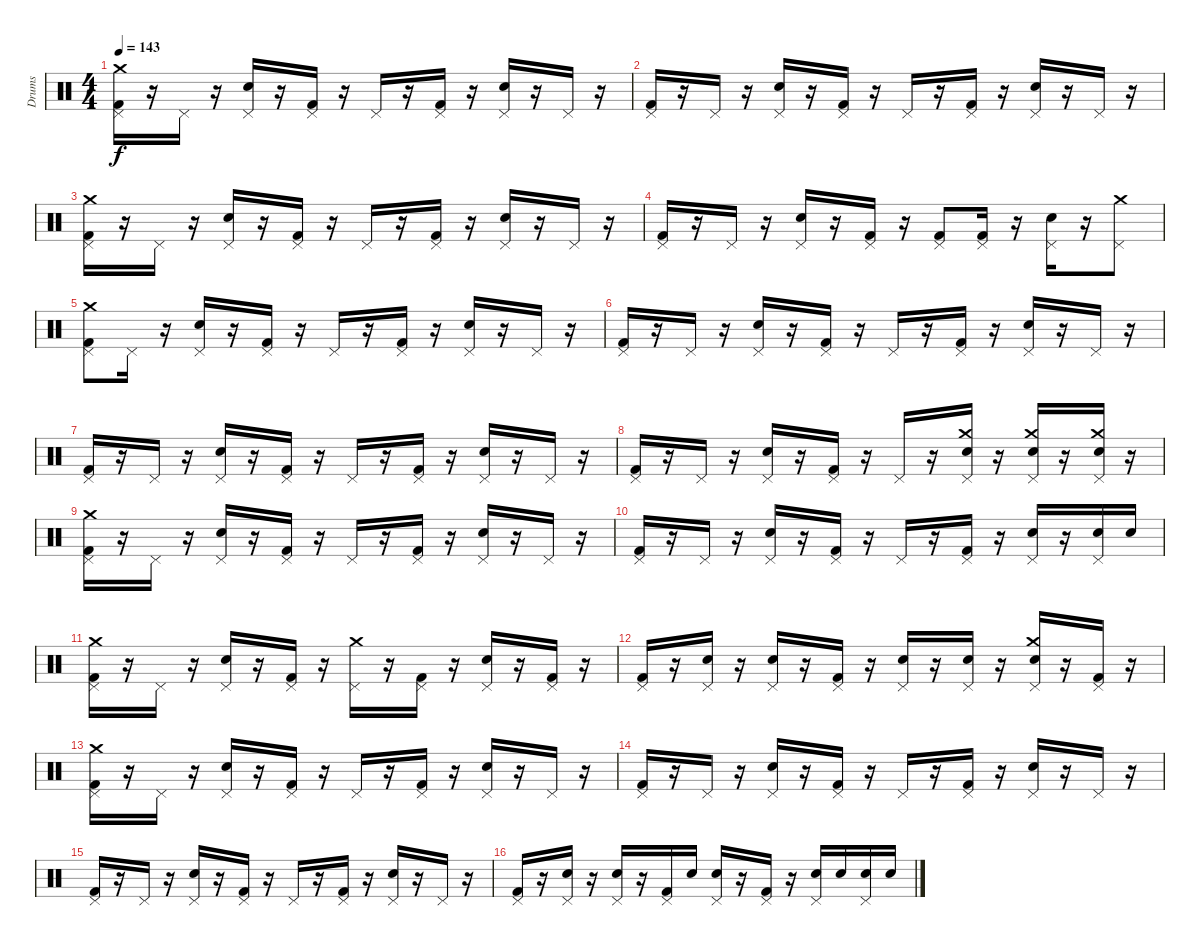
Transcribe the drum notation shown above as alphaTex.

\track ("Drums" "Drums") {instrument percussion}
\staff {score}
\articulation defaults
\ts (4 4)
\tempo 143
\clef neutral
\ks c
("Pedal Hi-Hat (hit)" "Kick (hit) 2" "Crash medium (hit)").16{dy f} r.16 "Pedal Hi-Hat (hit)".16 r.16 ("Electric Snare (hit)" "Pedal Hi-Hat (hit)").16 r.16 ("Kick (hit) 2" "Pedal Hi-Hat (hit)").16 r.16 "Pedal Hi-Hat (hit)".16 r.16 ("Pedal Hi-Hat (hit)" "Kick (hit) 2").16 r.16 ("Pedal Hi-Hat (hit)" "Electric Snare (hit)").16 r.16 "Pedal Hi-Hat (hit)".16 r.16 |
("Kick (hit) 2" "Pedal Hi-Hat (hit)").16 r.16 "Pedal Hi-Hat (hit)".16 r.16 ("Pedal Hi-Hat (hit)" "Electric Snare (hit)").16 r.16 ("Pedal Hi-Hat (hit)" "Kick (hit) 2").16 r.16 "Pedal Hi-Hat (hit)".16 r.16 ("Kick (hit) 2" "Pedal Hi-Hat (hit)").16 r.16 ("Electric Snare (hit)" "Pedal Hi-Hat (hit)").16 r.16 "Pedal Hi-Hat (hit)".16 r.16 |
("Crash medium (hit)" "Kick (hit) 2" "Pedal Hi-Hat (hit)").16 r.16 "Pedal Hi-Hat (hit)".16 r.16 ("Pedal Hi-Hat (hit)" "Electric Snare (hit)").16 r.16 ("Pedal Hi-Hat (hit)" "Kick (hit) 2").16 r.16 "Pedal Hi-Hat (hit)".16 r.16 ("Pedal Hi-Hat (hit)" "Kick (hit) 2").16 r.16 ("Pedal Hi-Hat (hit)" "Electric Snare (hit)").16 r.16 "Pedal Hi-Hat (hit)".16 r.16 |
("Kick (hit) 2" "Pedal Hi-Hat (hit)").16 r.16 "Pedal Hi-Hat (hit)".16 r.16 ("Pedal Hi-Hat (hit)" "Electric Snare (hit)").16 r.16 ("Pedal Hi-Hat (hit)" "Kick (hit) 2").16 r.16 ("Kick (hit) 2" "Pedal Hi-Hat (hit)").8 ("Pedal Hi-Hat (hit)" "Kick (hit) 2").16 r.16 ("Pedal Hi-Hat (hit)" "Electric Snare (hit)").16 r.16 ("Crash medium (hit)" "Pedal Hi-Hat (hit)").8 |
("Crash medium (hit)" "Kick (hit) 2" "Pedal Hi-Hat (hit)").8 "Pedal Hi-Hat (hit)".16 r.16 ("Pedal Hi-Hat (hit)" "Electric Snare (hit)").16 r.16 ("Pedal Hi-Hat (hit)" "Kick (hit) 2").16 r.16 "Pedal Hi-Hat (hit)".16 r.16 ("Pedal Hi-Hat (hit)" "Kick (hit) 2").16 r.16 ("Pedal Hi-Hat (hit)" "Electric Snare (hit)").16 r.16 "Pedal Hi-Hat (hit)".16 r.16 |
("Kick (hit) 2" "Pedal Hi-Hat (hit)").16 r.16 "Pedal Hi-Hat (hit)".16 r.16 ("Pedal Hi-Hat (hit)" "Electric Snare (hit)").16 r.16 ("Pedal Hi-Hat (hit)" "Kick (hit) 2").16 r.16 "Pedal Hi-Hat (hit)".16 r.16 ("Kick (hit) 2" "Pedal Hi-Hat (hit)").16 r.16 ("Electric Snare (hit)" "Pedal Hi-Hat (hit)").16 r.16 "Pedal Hi-Hat (hit)".16 r.16 |
("Pedal Hi-Hat (hit)" "Kick (hit) 2").16 r.16 "Pedal Hi-Hat (hit)".16 r.16 ("Electric Snare (hit)" "Pedal Hi-Hat (hit)").16 r.16 ("Kick (hit) 2" "Pedal Hi-Hat (hit)").16 r.16 "Pedal Hi-Hat (hit)".16 r.16 ("Pedal Hi-Hat (hit)" "Kick (hit) 2").16 r.16 ("Pedal Hi-Hat (hit)" "Electric Snare (hit)").16 r.16 "Pedal Hi-Hat (hit)".16 r.16 |
("Kick (hit) 2" "Pedal Hi-Hat (hit)").16 r.16 "Pedal Hi-Hat (hit)".16 r.16 ("Electric Snare (hit)" "Pedal Hi-Hat (hit)").16 r.16 ("Pedal Hi-Hat (hit)" "Kick (hit) 2").16 r.16 "Pedal Hi-Hat (hit)".16 r.16 ("Pedal Hi-Hat (hit)" "Crash medium (hit)" "Electric Snare (hit)").16 r.16 ("Crash medium (hit)" "Electric Snare (hit)" "Pedal Hi-Hat (hit)").16 r.16 ("Electric Snare (hit)" "Crash medium (hit)" "Pedal Hi-Hat (hit)").16 r.16 |
("Kick (hit) 2" "Crash medium (hit)" "Pedal Hi-Hat (hit)").16 r.16 "Pedal Hi-Hat (hit)".16 r.16 ("Pedal Hi-Hat (hit)" "Electric Snare (hit)").16 r.16 ("Pedal Hi-Hat (hit)" "Kick (hit) 2").16 r.16 "Pedal Hi-Hat (hit)".16 r.16 ("Kick (hit) 2" "Pedal Hi-Hat (hit)").16 r.16 ("Electric Snare (hit)" "Pedal Hi-Hat (hit)").16 r.16 "Pedal Hi-Hat (hit)".16 r.16 |
("Pedal Hi-Hat (hit)" "Kick (hit) 2").16 r.16 "Pedal Hi-Hat (hit)".16 r.16 ("Electric Snare (hit)" "Pedal Hi-Hat (hit)").16 r.16 ("Pedal Hi-Hat (hit)" "Kick (hit) 2").16 r.16 "Pedal Hi-Hat (hit)".16 r.16 ("Kick (hit) 2" "Pedal Hi-Hat (hit)").16 r.16 ("Electric Snare (hit)" "Pedal Hi-Hat (hit)").16 r.16 ("Pedal Hi-Hat (hit)" "Electric Snare (hit)").16 "Electric Snare (hit)".16 |
("Kick (hit) 2" "Crash medium (hit)" "Pedal Hi-Hat (hit)").16 r.16 "Pedal Hi-Hat (hit)".16 r.16 ("Pedal Hi-Hat (hit)" "Electric Snare (hit)").16 r.16 ("Pedal Hi-Hat (hit)" "Kick (hit) 2").16 r.16 ("Crash medium (hit)" "Pedal Hi-Hat (hit)").16 r.16 ("Pedal Hi-Hat (hit)" "Kick (hit) 2").16 r.16 ("Pedal Hi-Hat (hit)" "Electric Snare (hit)").16 r.16 ("Kick (hit) 2" "Pedal Hi-Hat (hit)").16 r.16 |
("Pedal Hi-Hat (hit)" "Kick (hit) 2").16 r.16 ("Electric Snare (hit)" "Pedal Hi-Hat (hit)").16 r.16 ("Pedal Hi-Hat (hit)" "Electric Snare (hit)").16 r.16 ("Kick (hit) 2" "Pedal Hi-Hat (hit)").16 r.16 ("Pedal Hi-Hat (hit)" "Electric Snare (hit)").16 r.16 ("Electric Snare (hit)" "Pedal Hi-Hat (hit)").16 r.16 ("Crash medium (hit)" "Electric Snare (hit)" "Pedal Hi-Hat (hit)").16 r.16 ("Pedal Hi-Hat (hit)" "Kick (hit) 2").16 r.16 |
("Pedal Hi-Hat (hit)" "Crash medium (hit)" "Kick (hit) 2").16 r.16 "Pedal Hi-Hat (hit)".16 r.16 ("Electric Snare (hit)" "Pedal Hi-Hat (hit)").16 r.16 ("Kick (hit) 2" "Pedal Hi-Hat (hit)").16 r.16 "Pedal Hi-Hat (hit)".16 r.16 ("Pedal Hi-Hat (hit)" "Kick (hit) 2").16 r.16 ("Pedal Hi-Hat (hit)" "Electric Snare (hit)").16 r.16 "Pedal Hi-Hat (hit)".16 r.16 |
("Kick (hit) 2" "Pedal Hi-Hat (hit)").16 r.16 "Pedal Hi-Hat (hit)".16 r.16 ("Pedal Hi-Hat (hit)" "Electric Snare (hit)").16 r.16 ("Pedal Hi-Hat (hit)" "Kick (hit) 2").16 r.16 "Pedal Hi-Hat (hit)".16 r.16 ("Kick (hit) 2" "Pedal Hi-Hat (hit)").16 r.16 ("Pedal Hi-Hat (hit)" "Electric Snare (hit)").16 r.16 "Pedal Hi-Hat (hit)".16 r.16 |
("Kick (hit) 2" "Pedal Hi-Hat (hit)").16 r.16 "Pedal Hi-Hat (hit)".16 r.16 ("Pedal Hi-Hat (hit)" "Electric Snare (hit)").16 r.16 ("Pedal Hi-Hat (hit)" "Kick (hit) 2").16 r.16 "Pedal Hi-Hat (hit)".16 r.16 ("Kick (hit) 2" "Pedal Hi-Hat (hit)").16 r.16 ("Electric Snare (hit)" "Pedal Hi-Hat (hit)").16 r.16 "Pedal Hi-Hat (hit)".16 r.16 |
("Pedal Hi-Hat (hit)" "Kick (hit) 2").16 r.16 ("Pedal Hi-Hat (hit)" "Electric Snare (hit)").16 r.16 ("Pedal Hi-Hat (hit)" "Electric Snare (hit)").16 r.16 ("Pedal Hi-Hat (hit)" "Kick (hit) 2").16 "Electric Snare (hit)".16 ("Electric Snare (hit)" "Pedal Hi-Hat (hit)").16 r.16 ("Kick (hit) 2" "Pedal Hi-Hat (hit)").16 r.16 ("Electric Snare (hit)" "Pedal Hi-Hat (hit)").16 "Electric Snare (hit)".16 ("Electric Snare (hit)" "Pedal Hi-Hat (hit)").16 "Electric Snare (hit)".16
